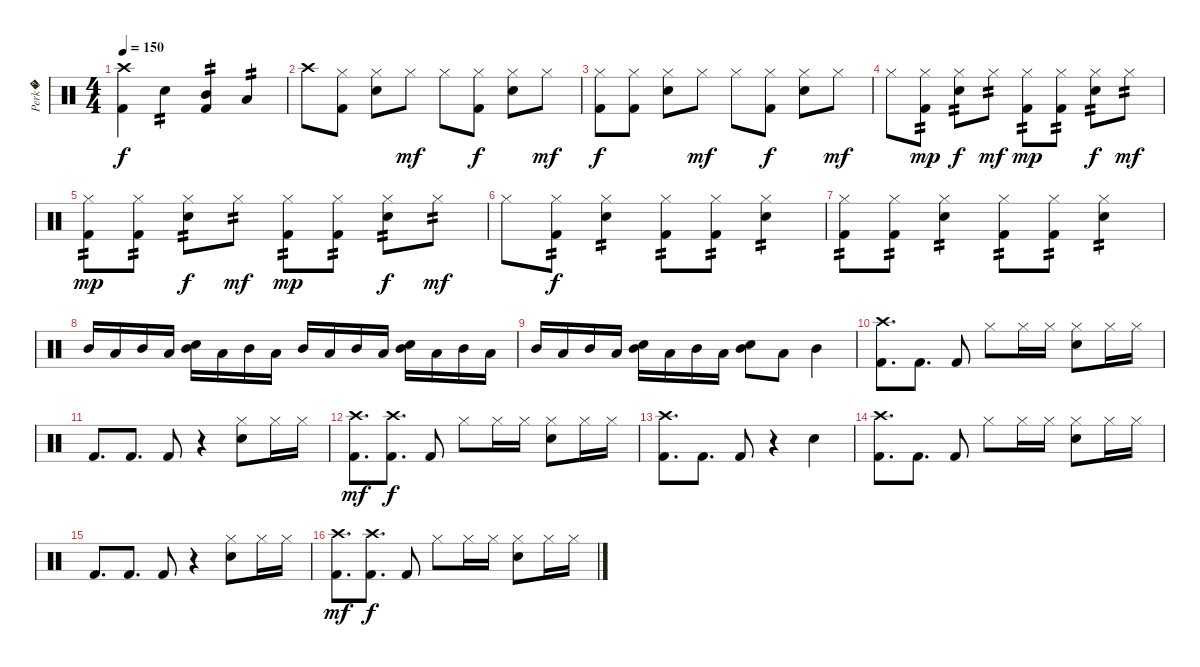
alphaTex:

\track ("Perk�" "Perk�") {instrument percussion}
\staff {score}
\articulation defaults
\ts (4 4)
\tempo 150
\clef neutral
\ks c
("Crash high (hit)" "Kick (hit) 2").4{dy f} "Snare (hit) 2".4{tp 2} ("Mid Tom (hit)" "Kick (hit) 2").4{tp 2} "Low Tom (hit)".4{tp 2} |
"Crash high (hit)".8 ("Hi-Hat (closed)" "Kick (hit) 2").8 ("Hi-Hat (closed)" "Snare (hit) 2").8 "Hi-Hat (closed)".8{dy mf} "Hi-Hat (closed)".8 ("Hi-Hat (closed)" "Kick (hit) 2").8{dy f} ("Hi-Hat (closed)" "Snare (hit) 2").8 "Hi-Hat (closed)".8{dy mf} |
("Hi-Hat (closed)" "Kick (hit) 2").8{dy f} ("Hi-Hat (closed)" "Kick (hit) 2").8 ("Hi-Hat (closed)" "Snare (hit) 2").8 "Hi-Hat (closed)".8{dy mf} "Hi-Hat (closed)".8 ("Hi-Hat (closed)" "Kick (hit) 2").8{dy f} ("Hi-Hat (closed)" "Snare (hit) 2").8 "Hi-Hat (closed)".8{dy mf} |
"Hi-Hat (closed)".8 ("Hi-Hat (closed)" "Kick (hit) 2").8{tp 2 dy mp} ("Hi-Hat (closed)" "Snare (hit) 2").8{tp 2 dy f} "Hi-Hat (closed)".8{tp 2 dy mf} ("Hi-Hat (closed)" "Kick (hit) 2").8{tp 2 dy mp} ("Hi-Hat (closed)" "Kick (hit) 2").8{tp 2} ("Hi-Hat (closed)" "Snare (hit) 2").8{tp 2 dy f} "Hi-Hat (closed)".8{tp 2 dy mf} |
("Hi-Hat (closed)" "Kick (hit) 2").8{tp 2 dy mp} ("Hi-Hat (closed)" "Kick (hit) 2").8{tp 2} ("Hi-Hat (closed)" "Snare (hit) 2").8{tp 2 dy f} "Hi-Hat (closed)".8{tp 2 dy mf} ("Hi-Hat (closed)" "Kick (hit) 2").8{tp 2 dy mp} ("Hi-Hat (closed)" "Kick (hit) 2").8{tp 2} ("Hi-Hat (closed)" "Snare (hit) 2").8{tp 2 dy f} "Hi-Hat (closed)".8{tp 2 dy mf} |
"Hi-Hat (closed)".8 ("Hi-Hat (closed)" "Kick (hit) 2").8{tp 2 dy f} ("Hi-Hat (closed)" "Snare (hit) 2").4{tp 2} ("Hi-Hat (closed)" "Kick (hit) 2").8{tp 2} ("Hi-Hat (closed)" "Kick (hit) 2").8{tp 2} ("Hi-Hat (closed)" "Snare (hit) 2").4{tp 2} |
("Hi-Hat (closed)" "Kick (hit) 2").8{tp 2} ("Hi-Hat (closed)" "Kick (hit) 2").8{tp 2} ("Hi-Hat (closed)" "Snare (hit) 2").4{tp 2} ("Hi-Hat (closed)" "Kick (hit) 2").8{tp 2} ("Hi-Hat (closed)" "Kick (hit) 2").8{tp 2} ("Hi-Hat (closed)" "Snare (hit) 2").4{tp 2} |
"Mid Tom (hit)".16 "Low Tom (hit)".16 "Mid Tom (hit)".16 "Low Tom (hit)".16 ("Mid Tom (hit)" "Snare (hit) 2").16 "Low Tom (hit)".16 "Mid Tom (hit)".16 "Low Tom (hit)".16 "Mid Tom (hit)".16 "Low Tom (hit)".16 "Mid Tom (hit)".16 "Low Tom (hit)".16 ("Mid Tom (hit)" "Snare (hit) 2").16 "Low Tom (hit)".16 "Mid Tom (hit)".16 "Low Tom (hit)".16 |
"Mid Tom (hit)".16 "Low Tom (hit)".16 "Mid Tom (hit)".16 "Low Tom (hit)".16 ("Mid Tom (hit)" "Snare (hit) 2").16 "Low Tom (hit)".16 "Mid Tom (hit)".16 "Low Tom (hit)".16 ("Mid Tom (hit)" "Snare (hit) 2").8 "Low Tom (hit)".8 "Mid Tom (hit)".4 |
("Kick (hit) 2" "Crash high (hit)").8{d} "Kick (hit) 2".8{d} "Kick (hit) 2".8 "Hi-Hat (closed)".8 "Hi-Hat (closed)".16 "Hi-Hat (closed)".16 ("Snare (hit) 2" "Hi-Hat (closed)").8 "Hi-Hat (closed)".16 "Hi-Hat (closed)".16 |
"Kick (hit) 2".8{d} "Kick (hit) 2".8{d} "Kick (hit) 2".8 r.4 ("Snare (hit) 2" "Hi-Hat (closed)").8 "Hi-Hat (closed)".16 "Hi-Hat (closed)".16 |
("Kick (hit) 2" "Crash high (hit)").8{d dy mf} ("Crash high (hit)" "Kick (hit) 2").8{d dy f} "Kick (hit) 2".8 "Hi-Hat (closed)".8 "Hi-Hat (closed)".16 "Hi-Hat (closed)".16 ("Snare (hit) 2" "Hi-Hat (closed)").8 "Hi-Hat (closed)".16 "Hi-Hat (closed)".16 |
("Kick (hit) 2" "Crash high (hit)").8{d} "Kick (hit) 2".8{d} "Kick (hit) 2".8 r.4 "Snare (hit) 2".4 |
("Kick (hit) 2" "Crash high (hit)").8{d} "Kick (hit) 2".8{d} "Kick (hit) 2".8 "Hi-Hat (closed)".8 "Hi-Hat (closed)".16 "Hi-Hat (closed)".16 ("Snare (hit) 2" "Hi-Hat (closed)").8 "Hi-Hat (closed)".16 "Hi-Hat (closed)".16 |
"Kick (hit) 2".8{d} "Kick (hit) 2".8{d} "Kick (hit) 2".8 r.4 ("Snare (hit) 2" "Hi-Hat (closed)").8 "Hi-Hat (closed)".16 "Hi-Hat (closed)".16 |
("Kick (hit) 2" "Crash high (hit)").8{d dy mf} ("Crash high (hit)" "Kick (hit) 2").8{d dy f} "Kick (hit) 2".8 "Hi-Hat (closed)".8 "Hi-Hat (closed)".16 "Hi-Hat (closed)".16 ("Snare (hit) 2" "Hi-Hat (closed)").8 "Hi-Hat (closed)".16 "Hi-Hat (closed)".16
